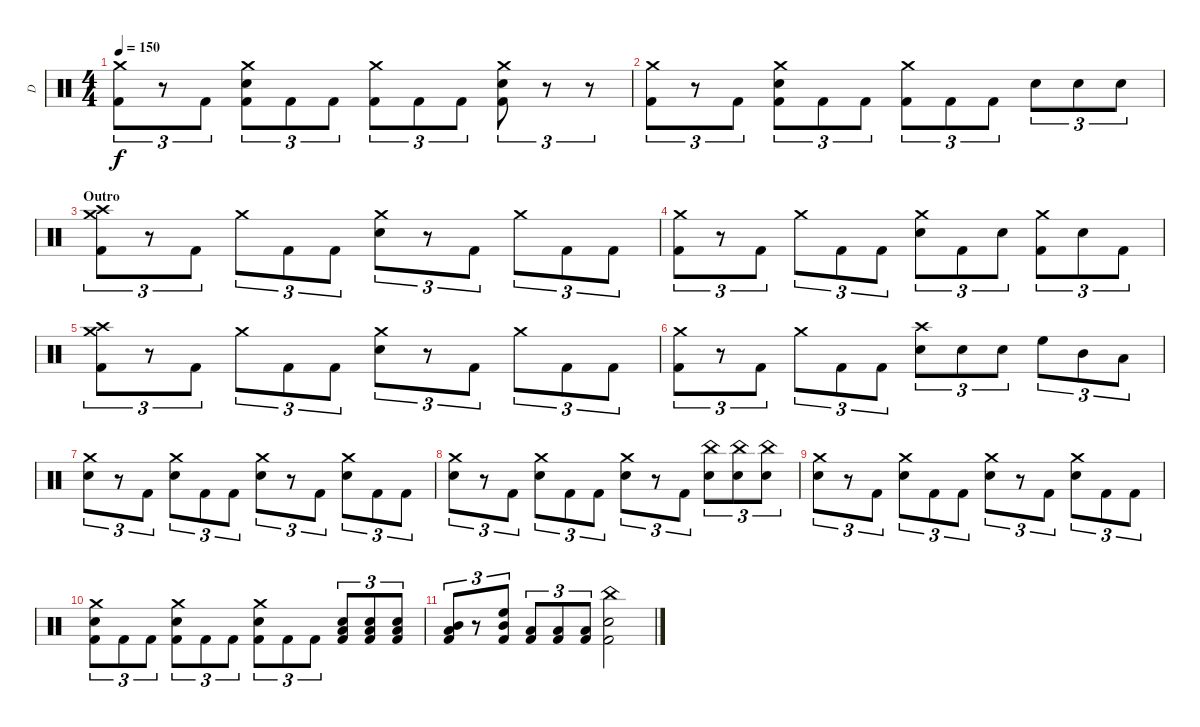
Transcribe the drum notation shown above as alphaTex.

\track ("D" "D") {instrument percussion}
\staff {score}
\articulation defaults
\ts (4 4)
\tempo 150
\clef neutral
\ks c
("Crash medium (hit)" "Kick (hit) 2").8{tu (3 2) dy f} r.8{tu (3 2)} "Kick (hit) 2".8{tu (3 2)} ("Crash medium (hit)" "Electric Snare (hit)" "Kick (hit) 2").8{tu (3 2)} "Kick (hit) 2".8{tu (3 2)} "Kick (hit) 2".8{tu (3 2)} ("Crash medium (hit)" "Kick (hit) 2").8{tu (3 2)} "Kick (hit) 2".8{tu (3 2)} "Kick (hit) 2".8{tu (3 2)} ("Crash medium (hit)" "Electric Snare (hit)" "Kick (hit) 2").8{tu (3 2)} r.8{tu (3 2)} r.8{tu (3 2)} |
("Crash medium (hit)" "Kick (hit) 2").8{tu (3 2)} r.8{tu (3 2)} "Kick (hit) 2".8{tu (3 2)} ("Crash medium (hit)" "Electric Snare (hit)" "Kick (hit) 2").8{tu (3 2)} "Kick (hit) 2".8{tu (3 2)} "Kick (hit) 2".8{tu (3 2)} ("Crash medium (hit)" "Kick (hit) 2").8{tu (3 2)} "Kick (hit) 2".8{tu (3 2)} "Kick (hit) 2".8{tu (3 2)} "Electric Snare (hit)".8{tu (3 2)} "Electric Snare (hit)".8{tu (3 2)} "Electric Snare (hit)".8{tu (3 2)} |
\section ("" "Outro")
("Crash medium (hit)" "Crash high (hit)" "Kick (hit) 2").8{tu (3 2)} r.8{tu (3 2)} "Kick (hit) 2".8{tu (3 2)} "Crash medium (hit)".8{tu (3 2)} "Kick (hit) 2".8{tu (3 2)} "Kick (hit) 2".8{tu (3 2)} ("Crash medium (hit)" "Electric Snare (hit)").8{tu (3 2)} r.8{tu (3 2)} "Kick (hit) 2".8{tu (3 2)} "Crash medium (hit)".8{tu (3 2)} "Kick (hit) 2".8{tu (3 2)} "Kick (hit) 2".8{tu (3 2)} |
("Crash medium (hit)" "Kick (hit) 2").8{tu (3 2)} r.8{tu (3 2)} "Kick (hit) 2".8{tu (3 2)} "Crash medium (hit)".8{tu (3 2)} "Kick (hit) 2".8{tu (3 2)} "Kick (hit) 2".8{tu (3 2)} ("Crash medium (hit)" "Electric Snare (hit)").8{tu (3 2)} "Kick (hit) 2".8{tu (3 2)} "Electric Snare (hit)".8{tu (3 2)} ("Crash medium (hit)" "Kick (hit) 2").8{tu (3 2)} "Electric Snare (hit)".8{tu (3 2)} "Kick (hit) 2".8{tu (3 2)} |
("Crash medium (hit)" "Crash high (hit)" "Kick (hit) 2").8{tu (3 2)} r.8{tu (3 2)} "Kick (hit) 2".8{tu (3 2)} "Crash medium (hit)".8{tu (3 2)} "Kick (hit) 2".8{tu (3 2)} "Kick (hit) 2".8{tu (3 2)} ("Crash medium (hit)" "Electric Snare (hit)").8{tu (3 2)} r.8{tu (3 2)} "Kick (hit) 2".8{tu (3 2)} "Crash medium (hit)".8{tu (3 2)} "Kick (hit) 2".8{tu (3 2)} "Kick (hit) 2".8{tu (3 2)} |
("Crash medium (hit)" "Kick (hit) 2").8{tu (3 2)} r.8{tu (3 2)} "Kick (hit) 2".8{tu (3 2)} "Crash medium (hit)".8{tu (3 2)} "Kick (hit) 2".8{tu (3 2)} "Kick (hit) 2".8{tu (3 2)} ("Crash high (hit)" "Electric Snare (hit)").8{tu (3 2)} "Electric Snare (hit)".8{tu (3 2)} "Electric Snare (hit)".8{tu (3 2)} "High Floor Tom (hit)".8{tu (3 2)} "Mid Tom (hit)".8{tu (3 2)} "Low Tom (hit)".8{tu (3 2)} |
("Crash medium (hit)" "Electric Snare (hit)").8{tu (3 2)} r.8{tu (3 2)} "Kick (hit) 2".8{tu (3 2)} ("Crash medium (hit)" "Electric Snare (hit)").8{tu (3 2)} "Kick (hit) 2".8{tu (3 2)} "Kick (hit) 2".8{tu (3 2)} ("Crash medium (hit)" "Electric Snare (hit)").8{tu (3 2)} r.8{tu (3 2)} "Kick (hit) 2".8{tu (3 2)} ("Crash medium (hit)" "Electric Snare (hit)").8{tu (3 2)} "Kick (hit) 2".8{tu (3 2)} "Kick (hit) 2".8{tu (3 2)} |
("Crash medium (hit)" "Electric Snare (hit)").8{tu (3 2)} r.8{tu (3 2)} "Kick (hit) 2".8{tu (3 2)} ("Crash medium (hit)" "Electric Snare (hit)").8{tu (3 2)} "Kick (hit) 2".8{tu (3 2)} "Kick (hit) 2".8{tu (3 2)} ("Crash medium (hit)" "Electric Snare (hit)").8{tu (3 2)} r.8{tu (3 2)} "Kick (hit) 2".8{tu (3 2)} ("China (hit)" "Electric Snare (hit)").8{tu (3 2)} ("China (hit)" "Electric Snare (hit)").8{tu (3 2)} ("China (hit)" "Electric Snare (hit)").8{tu (3 2)} |
("Crash medium (hit)" "Electric Snare (hit)").8{tu (3 2)} r.8{tu (3 2)} "Kick (hit) 2".8{tu (3 2)} ("Crash medium (hit)" "Electric Snare (hit)").8{tu (3 2)} "Kick (hit) 2".8{tu (3 2)} "Kick (hit) 2".8{tu (3 2)} ("Crash medium (hit)" "Electric Snare (hit)").8{tu (3 2)} r.8{tu (3 2)} "Kick (hit) 2".8{tu (3 2)} ("Crash medium (hit)" "Electric Snare (hit)").8{tu (3 2)} "Kick (hit) 2".8{tu (3 2)} "Kick (hit) 2".8{tu (3 2)} |
("Crash medium (hit)" "Electric Snare (hit)" "Kick (hit) 2").8{tu (3 2)} "Kick (hit) 2".8{tu (3 2)} "Kick (hit) 2".8{tu (3 2)} ("Crash medium (hit)" "Electric Snare (hit)" "Kick (hit) 2").8{tu (3 2)} "Kick (hit) 2".8{tu (3 2)} "Kick (hit) 2".8{tu (3 2)} ("Crash medium (hit)" "Electric Snare (hit)" "Kick (hit) 2").8{tu (3 2)} "Kick (hit) 2".8{tu (3 2)} "Kick (hit) 2".8{tu (3 2)} ("Electric Snare (hit)" "Low Floor Tom (hit)" "Kick (hit) 2").8{tu (3 2)} ("Electric Snare (hit)" "Low Floor Tom (hit)" "Kick (hit) 2").8{tu (3 2)} ("Electric Snare (hit)" "Low Floor Tom (hit)" "Kick (hit) 2").8{tu (3 2)} |
("Mid Tom (hit)" "Low Tom (hit)" "Kick (hit) 2").8{tu (3 2)} r.8{tu (3 2)} ("High Floor Tom (hit)" "Mid Tom (hit)" "Kick (hit) 2").8{tu (3 2)} ("Low Tom (hit)" "Kick (hit) 2").8{tu (3 2)} ("Low Tom (hit)" "Kick (hit) 2").8{tu (3 2)} ("Low Tom (hit)" "Kick (hit) 2").8{tu (3 2)} ("China (hit)" "Electric Snare (hit)" "Kick (hit) 2").2
